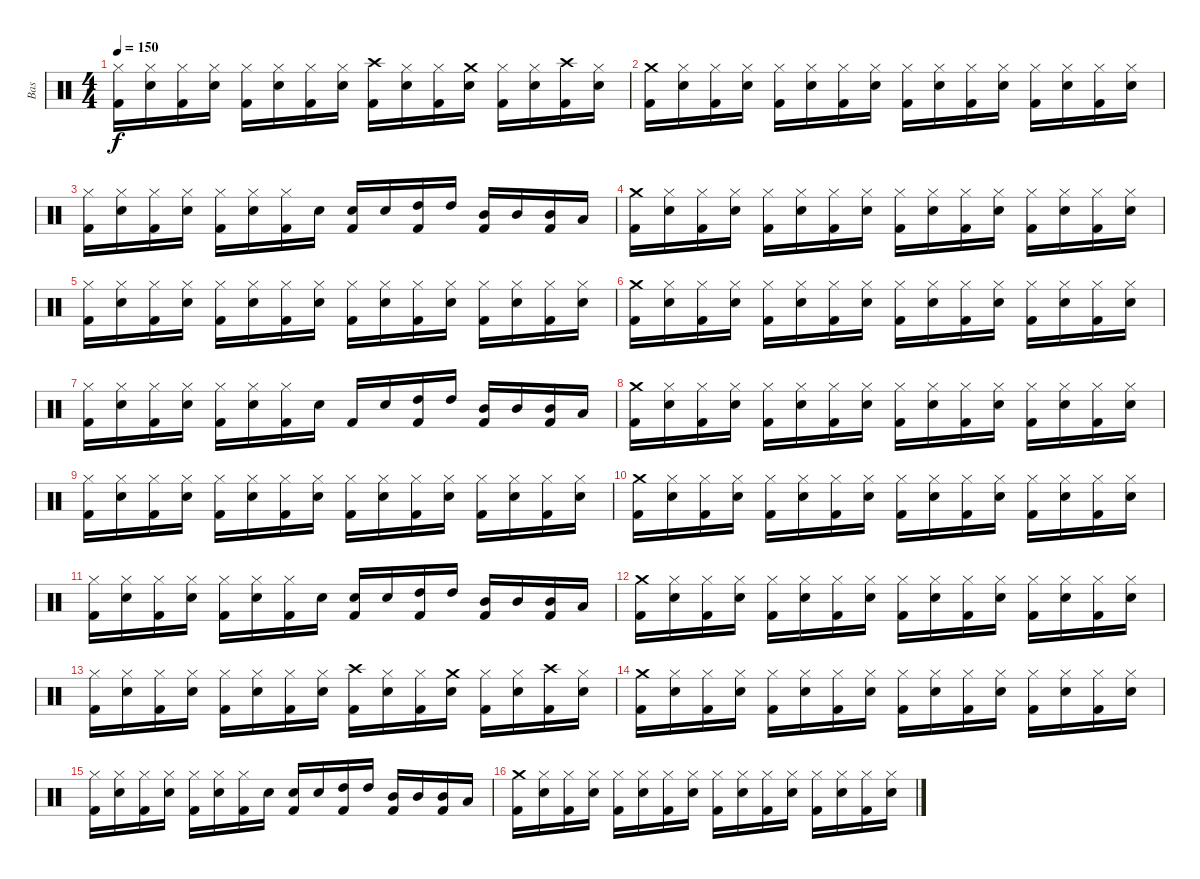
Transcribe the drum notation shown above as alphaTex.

\track ("Bas" "Bas") {instrument percussion}
\staff {score}
\articulation defaults
\ts (4 4)
\tempo 150
\clef neutral
\ks c
("Hi-Hat (closed)" "Kick (hit) 2").16{dy f} ("Hi-Hat (closed)" "Snare (hit) 2").16 ("Hi-Hat (closed)" "Kick (hit) 2").16 ("Hi-Hat (closed)" "Snare (hit) 2").16 ("Hi-Hat (closed)" "Kick (hit) 2").16 ("Hi-Hat (closed)" "Snare (hit) 2").16 ("Hi-Hat (closed)" "Kick (hit) 2").16 ("Hi-Hat (closed)" "Snare (hit) 2").16 ("Crash high (hit)" "Kick (hit) 2").16 ("Hi-Hat (closed)" "Snare (hit) 2").16 ("Hi-Hat (closed)" "Kick (hit) 2").16 ("Crash medium (hit)" "Snare (hit) 2").16 ("Hi-Hat (closed)" "Kick (hit) 2").16 ("Hi-Hat (closed)" "Snare (hit) 2").16 ("Crash high (hit)" "Kick (hit) 2").16 ("Hi-Hat (closed)" "Snare (hit) 2").16 |
("Crash medium (hit)" "Kick (hit) 2").16 ("Hi-Hat (closed)" "Snare (hit) 2").16 ("Hi-Hat (closed)" "Kick (hit) 2").16 ("Hi-Hat (closed)" "Snare (hit) 2").16 ("Hi-Hat (closed)" "Kick (hit) 2").16 ("Hi-Hat (closed)" "Snare (hit) 2").16 ("Hi-Hat (closed)" "Kick (hit) 2").16 ("Hi-Hat (closed)" "Snare (hit) 2").16 ("Hi-Hat (closed)" "Kick (hit) 2").16 ("Hi-Hat (closed)" "Snare (hit) 2").16 ("Hi-Hat (closed)" "Kick (hit) 2").16 ("Hi-Hat (closed)" "Snare (hit) 2").16 ("Hi-Hat (closed)" "Kick (hit) 2").16 ("Hi-Hat (closed)" "Snare (hit) 2").16 ("Hi-Hat (closed)" "Kick (hit) 2").16 ("Hi-Hat (closed)" "Snare (hit) 2").16 |
("Hi-Hat (closed)" "Kick (hit) 2").16 ("Hi-Hat (closed)" "Snare (hit) 2").16 ("Hi-Hat (closed)" "Kick (hit) 2").16 ("Hi-Hat (closed)" "Snare (hit) 2").16 ("Hi-Hat (closed)" "Kick (hit) 2").16 ("Hi-Hat (closed)" "Snare (hit) 2").16 ("Hi-Hat (closed)" "Kick (hit) 2").16 "Snare (hit) 2".16 ("Snare (hit) 2" "Kick (hit) 2").16 "Snare (hit) 2".16 ("High Tom (hit)" "Kick (hit) 2").16 "High Tom (hit)".16 ("Mid Tom (hit)" "Kick (hit) 2").16 "Mid Tom (hit)".16 ("Mid Tom (hit)" "Kick (hit) 2").16 "Low Tom (hit)".16 |
("Crash medium (hit)" "Kick (hit) 2").16 ("Hi-Hat (closed)" "Snare (hit) 2").16 ("Hi-Hat (closed)" "Kick (hit) 2").16 ("Hi-Hat (closed)" "Snare (hit) 2").16 ("Hi-Hat (closed)" "Kick (hit) 2").16 ("Hi-Hat (closed)" "Snare (hit) 2").16 ("Hi-Hat (closed)" "Kick (hit) 2").16 ("Hi-Hat (closed)" "Snare (hit) 2").16 ("Hi-Hat (closed)" "Kick (hit) 2").16 ("Hi-Hat (closed)" "Snare (hit) 2").16 ("Hi-Hat (closed)" "Kick (hit) 2").16 ("Hi-Hat (closed)" "Snare (hit) 2").16 ("Hi-Hat (closed)" "Kick (hit) 2").16 ("Hi-Hat (closed)" "Snare (hit) 2").16 ("Hi-Hat (closed)" "Kick (hit) 2").16 ("Hi-Hat (closed)" "Snare (hit) 2").16 |
("Hi-Hat (closed)" "Kick (hit) 2").16 ("Hi-Hat (closed)" "Snare (hit) 2").16 ("Hi-Hat (closed)" "Kick (hit) 2").16 ("Hi-Hat (closed)" "Snare (hit) 2").16 ("Hi-Hat (closed)" "Kick (hit) 2").16 ("Hi-Hat (closed)" "Snare (hit) 2").16 ("Hi-Hat (closed)" "Kick (hit) 2").16 ("Hi-Hat (closed)" "Snare (hit) 2").16 ("Hi-Hat (closed)" "Kick (hit) 2").16 ("Hi-Hat (closed)" "Snare (hit) 2").16 ("Hi-Hat (closed)" "Kick (hit) 2").16 ("Hi-Hat (closed)" "Snare (hit) 2").16 ("Hi-Hat (closed)" "Kick (hit) 2").16 ("Hi-Hat (closed)" "Snare (hit) 2").16 ("Hi-Hat (closed)" "Kick (hit) 2").16 ("Hi-Hat (closed)" "Snare (hit) 2").16 |
("Crash medium (hit)" "Kick (hit) 2").16 ("Hi-Hat (closed)" "Snare (hit) 2").16 ("Hi-Hat (closed)" "Kick (hit) 2").16 ("Hi-Hat (closed)" "Snare (hit) 2").16 ("Hi-Hat (closed)" "Kick (hit) 2").16 ("Hi-Hat (closed)" "Snare (hit) 2").16 ("Hi-Hat (closed)" "Kick (hit) 2").16 ("Hi-Hat (closed)" "Snare (hit) 2").16 ("Hi-Hat (closed)" "Kick (hit) 2").16 ("Hi-Hat (closed)" "Snare (hit) 2").16 ("Hi-Hat (closed)" "Kick (hit) 2").16 ("Hi-Hat (closed)" "Snare (hit) 2").16 ("Hi-Hat (closed)" "Kick (hit) 2").16 ("Hi-Hat (closed)" "Snare (hit) 2").16 ("Hi-Hat (closed)" "Kick (hit) 2").16 ("Hi-Hat (closed)" "Snare (hit) 2").16 |
("Hi-Hat (closed)" "Kick (hit) 2").16 ("Hi-Hat (closed)" "Snare (hit) 2").16 ("Hi-Hat (closed)" "Kick (hit) 2").16 ("Hi-Hat (closed)" "Snare (hit) 2").16 ("Hi-Hat (closed)" "Kick (hit) 2").16 ("Hi-Hat (closed)" "Snare (hit) 2").16 ("Hi-Hat (closed)" "Kick (hit) 2").16 "Snare (hit) 2".16 "Kick (hit) 2".16 "Snare (hit) 2".16 ("High Tom (hit)" "Kick (hit) 2").16 "High Tom (hit)".16 ("Mid Tom (hit)" "Kick (hit) 2").16 "Mid Tom (hit)".16 ("Mid Tom (hit)" "Kick (hit) 2").16 "Low Tom (hit)".16 |
("Crash medium (hit)" "Kick (hit) 2").16 ("Hi-Hat (closed)" "Snare (hit) 2").16 ("Hi-Hat (closed)" "Kick (hit) 2").16 ("Hi-Hat (closed)" "Snare (hit) 2").16 ("Hi-Hat (closed)" "Kick (hit) 2").16 ("Hi-Hat (closed)" "Snare (hit) 2").16 ("Hi-Hat (closed)" "Kick (hit) 2").16 ("Hi-Hat (closed)" "Snare (hit) 2").16 ("Hi-Hat (closed)" "Kick (hit) 2").16 ("Hi-Hat (closed)" "Snare (hit) 2").16 ("Hi-Hat (closed)" "Kick (hit) 2").16 ("Hi-Hat (closed)" "Snare (hit) 2").16 ("Hi-Hat (closed)" "Kick (hit) 2").16 ("Hi-Hat (closed)" "Snare (hit) 2").16 ("Hi-Hat (closed)" "Kick (hit) 2").16 ("Hi-Hat (closed)" "Snare (hit) 2").16 |
("Hi-Hat (closed)" "Kick (hit) 2").16 ("Hi-Hat (closed)" "Snare (hit) 2").16 ("Hi-Hat (closed)" "Kick (hit) 2").16 ("Hi-Hat (closed)" "Snare (hit) 2").16 ("Hi-Hat (closed)" "Kick (hit) 2").16 ("Hi-Hat (closed)" "Snare (hit) 2").16 ("Hi-Hat (closed)" "Kick (hit) 2").16 ("Hi-Hat (closed)" "Snare (hit) 2").16 ("Hi-Hat (closed)" "Kick (hit) 2").16 ("Hi-Hat (closed)" "Snare (hit) 2").16 ("Hi-Hat (closed)" "Kick (hit) 2").16 ("Hi-Hat (closed)" "Snare (hit) 2").16 ("Hi-Hat (closed)" "Kick (hit) 2").16 ("Hi-Hat (closed)" "Snare (hit) 2").16 ("Hi-Hat (closed)" "Kick (hit) 2").16 ("Hi-Hat (closed)" "Snare (hit) 2").16 |
("Crash medium (hit)" "Kick (hit) 2").16 ("Hi-Hat (closed)" "Snare (hit) 2").16 ("Hi-Hat (closed)" "Kick (hit) 2").16 ("Hi-Hat (closed)" "Snare (hit) 2").16 ("Hi-Hat (closed)" "Kick (hit) 2").16 ("Hi-Hat (closed)" "Snare (hit) 2").16 ("Hi-Hat (closed)" "Kick (hit) 2").16 ("Hi-Hat (closed)" "Snare (hit) 2").16 ("Hi-Hat (closed)" "Kick (hit) 2").16 ("Hi-Hat (closed)" "Snare (hit) 2").16 ("Hi-Hat (closed)" "Kick (hit) 2").16 ("Hi-Hat (closed)" "Snare (hit) 2").16 ("Hi-Hat (closed)" "Kick (hit) 2").16 ("Hi-Hat (closed)" "Snare (hit) 2").16 ("Hi-Hat (closed)" "Kick (hit) 2").16 ("Hi-Hat (closed)" "Snare (hit) 2").16 |
("Hi-Hat (closed)" "Kick (hit) 2").16 ("Hi-Hat (closed)" "Snare (hit) 2").16 ("Hi-Hat (closed)" "Kick (hit) 2").16 ("Hi-Hat (closed)" "Snare (hit) 2").16 ("Hi-Hat (closed)" "Kick (hit) 2").16 ("Hi-Hat (closed)" "Snare (hit) 2").16 ("Hi-Hat (closed)" "Kick (hit) 2").16 "Snare (hit) 2".16 ("Snare (hit) 2" "Kick (hit) 2").16 "Snare (hit) 2".16 ("High Tom (hit)" "Kick (hit) 2").16 "High Tom (hit)".16 ("Mid Tom (hit)" "Kick (hit) 2").16 "Mid Tom (hit)".16 ("Mid Tom (hit)" "Kick (hit) 2").16 "Low Tom (hit)".16 |
("Crash medium (hit)" "Kick (hit) 2").16 ("Hi-Hat (closed)" "Snare (hit) 2").16 ("Hi-Hat (closed)" "Kick (hit) 2").16 ("Hi-Hat (closed)" "Snare (hit) 2").16 ("Hi-Hat (closed)" "Kick (hit) 2").16 ("Hi-Hat (closed)" "Snare (hit) 2").16 ("Hi-Hat (closed)" "Kick (hit) 2").16 ("Hi-Hat (closed)" "Snare (hit) 2").16 ("Hi-Hat (closed)" "Kick (hit) 2").16 ("Hi-Hat (closed)" "Snare (hit) 2").16 ("Hi-Hat (closed)" "Kick (hit) 2").16 ("Hi-Hat (closed)" "Snare (hit) 2").16 ("Hi-Hat (closed)" "Kick (hit) 2").16 ("Hi-Hat (closed)" "Snare (hit) 2").16 ("Hi-Hat (closed)" "Kick (hit) 2").16 ("Hi-Hat (closed)" "Snare (hit) 2").16 |
("Hi-Hat (closed)" "Kick (hit) 2").16 ("Hi-Hat (closed)" "Snare (hit) 2").16 ("Hi-Hat (closed)" "Kick (hit) 2").16 ("Hi-Hat (closed)" "Snare (hit) 2").16 ("Hi-Hat (closed)" "Kick (hit) 2").16 ("Hi-Hat (closed)" "Snare (hit) 2").16 ("Hi-Hat (closed)" "Kick (hit) 2").16 ("Hi-Hat (closed)" "Snare (hit) 2").16 ("Crash high (hit)" "Kick (hit) 2").16 ("Hi-Hat (closed)" "Snare (hit) 2").16 ("Hi-Hat (closed)" "Kick (hit) 2").16 ("Crash medium (hit)" "Snare (hit) 2").16 ("Hi-Hat (closed)" "Kick (hit) 2").16 ("Hi-Hat (closed)" "Snare (hit) 2").16 ("Crash high (hit)" "Kick (hit) 2").16 ("Hi-Hat (closed)" "Snare (hit) 2").16 |
("Crash medium (hit)" "Kick (hit) 2").16 ("Hi-Hat (closed)" "Snare (hit) 2").16 ("Hi-Hat (closed)" "Kick (hit) 2").16 ("Hi-Hat (closed)" "Snare (hit) 2").16 ("Hi-Hat (closed)" "Kick (hit) 2").16 ("Hi-Hat (closed)" "Snare (hit) 2").16 ("Hi-Hat (closed)" "Kick (hit) 2").16 ("Hi-Hat (closed)" "Snare (hit) 2").16 ("Hi-Hat (closed)" "Kick (hit) 2").16 ("Hi-Hat (closed)" "Snare (hit) 2").16 ("Hi-Hat (closed)" "Kick (hit) 2").16 ("Hi-Hat (closed)" "Snare (hit) 2").16 ("Hi-Hat (closed)" "Kick (hit) 2").16 ("Hi-Hat (closed)" "Snare (hit) 2").16 ("Hi-Hat (closed)" "Kick (hit) 2").16 ("Hi-Hat (closed)" "Snare (hit) 2").16 |
("Hi-Hat (closed)" "Kick (hit) 2").16 ("Hi-Hat (closed)" "Snare (hit) 2").16 ("Hi-Hat (closed)" "Kick (hit) 2").16 ("Hi-Hat (closed)" "Snare (hit) 2").16 ("Hi-Hat (closed)" "Kick (hit) 2").16 ("Hi-Hat (closed)" "Snare (hit) 2").16 ("Hi-Hat (closed)" "Kick (hit) 2").16 "Snare (hit) 2".16 ("Snare (hit) 2" "Kick (hit) 2").16 "Snare (hit) 2".16 ("High Tom (hit)" "Kick (hit) 2").16 "High Tom (hit)".16 ("Mid Tom (hit)" "Kick (hit) 2").16 "Mid Tom (hit)".16 ("Mid Tom (hit)" "Kick (hit) 2").16 "Low Tom (hit)".16 |
("Crash medium (hit)" "Kick (hit) 2").16 ("Hi-Hat (closed)" "Snare (hit) 2").16 ("Hi-Hat (closed)" "Kick (hit) 2").16 ("Hi-Hat (closed)" "Snare (hit) 2").16 ("Hi-Hat (closed)" "Kick (hit) 2").16 ("Hi-Hat (closed)" "Snare (hit) 2").16 ("Hi-Hat (closed)" "Kick (hit) 2").16 ("Hi-Hat (closed)" "Snare (hit) 2").16 ("Hi-Hat (closed)" "Kick (hit) 2").16 ("Hi-Hat (closed)" "Snare (hit) 2").16 ("Hi-Hat (closed)" "Kick (hit) 2").16 ("Hi-Hat (closed)" "Snare (hit) 2").16 ("Hi-Hat (closed)" "Kick (hit) 2").16 ("Hi-Hat (closed)" "Snare (hit) 2").16 ("Hi-Hat (closed)" "Kick (hit) 2").16 ("Hi-Hat (closed)" "Snare (hit) 2").16
